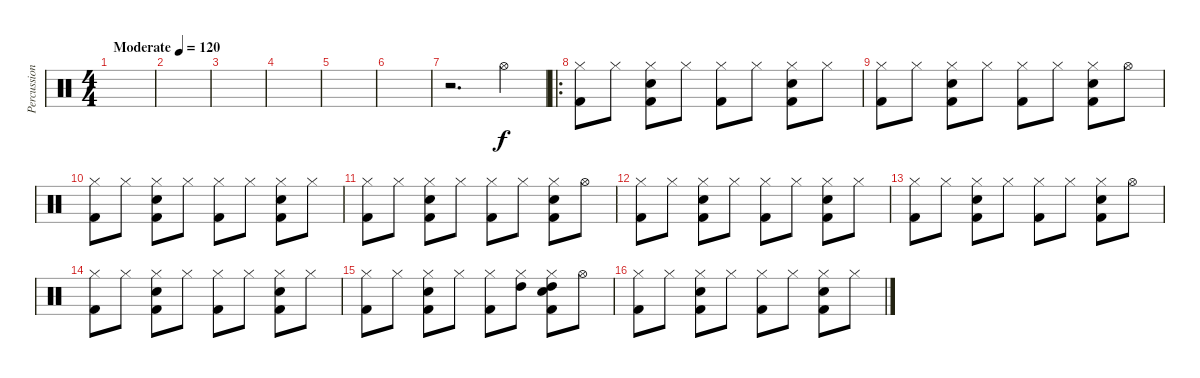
\track ("Percussion" "Percussion") {instrument percussion}
\staff {score}
\articulation defaults
\ts (4 4)
\tempo (120 "Moderate")
\clef neutral
\ks c
|
|
|
|
|
|
r.2{d} "Hi-Hat (open)".4 |
\ro
("Hi-Hat (closed)" "Kick (hit) 2").8 "Hi-Hat (closed)".8 ("Hi-Hat (closed)" "Kick (hit) 2" "Snare (hit) 2").8 "Hi-Hat (closed)".8 ("Hi-Hat (closed)" "Kick (hit) 2").8 "Hi-Hat (closed)".8 ("Hi-Hat (closed)" "Kick (hit) 2" "Snare (hit) 2").8 "Hi-Hat (closed)".8 |
("Hi-Hat (closed)" "Kick (hit) 2").8 "Hi-Hat (closed)".8 ("Hi-Hat (closed)" "Kick (hit) 2" "Snare (hit) 2").8 "Hi-Hat (closed)".8 ("Hi-Hat (closed)" "Kick (hit) 2").8 "Hi-Hat (closed)".8 ("Hi-Hat (closed)" "Kick (hit) 2" "Snare (hit) 2").8 "Hi-Hat (open)".8 |
("Hi-Hat (closed)" "Kick (hit) 2").8 "Hi-Hat (closed)".8 ("Hi-Hat (closed)" "Kick (hit) 2" "Snare (hit) 2").8 "Hi-Hat (closed)".8 ("Hi-Hat (closed)" "Kick (hit) 2").8 "Hi-Hat (closed)".8 ("Hi-Hat (closed)" "Kick (hit) 2" "Snare (hit) 2").8 "Hi-Hat (closed)".8 |
("Hi-Hat (closed)" "Kick (hit) 2").8 "Hi-Hat (closed)".8 ("Hi-Hat (closed)" "Kick (hit) 2" "Snare (hit) 2").8 "Hi-Hat (closed)".8 ("Hi-Hat (closed)" "Kick (hit) 2").8 "Hi-Hat (closed)".8 ("Hi-Hat (closed)" "Kick (hit) 2" "Snare (hit) 2").8 "Hi-Hat (open)".8 |
("Hi-Hat (closed)" "Kick (hit) 2").8 "Hi-Hat (closed)".8 ("Hi-Hat (closed)" "Kick (hit) 2" "Snare (hit) 2").8 "Hi-Hat (closed)".8 ("Hi-Hat (closed)" "Kick (hit) 2").8 "Hi-Hat (closed)".8 ("Hi-Hat (closed)" "Kick (hit) 2" "Snare (hit) 2").8 "Hi-Hat (closed)".8 |
("Hi-Hat (closed)" "Kick (hit) 2").8 "Hi-Hat (closed)".8 ("Hi-Hat (closed)" "Kick (hit) 2" "Snare (hit) 2").8 "Hi-Hat (closed)".8 ("Hi-Hat (closed)" "Kick (hit) 2").8 "Hi-Hat (closed)".8 ("Hi-Hat (closed)" "Kick (hit) 2" "Snare (hit) 2").8 "Hi-Hat (open)".8 |
("Hi-Hat (closed)" "Kick (hit) 2").8 "Hi-Hat (closed)".8 ("Hi-Hat (closed)" "Kick (hit) 2" "Snare (hit) 2").8 "Hi-Hat (closed)".8 ("Hi-Hat (closed)" "Kick (hit) 2").8 "Hi-Hat (closed)".8 ("Hi-Hat (closed)" "Kick (hit) 2" "Snare (hit) 2").8 "Hi-Hat (closed)".8 |
("Hi-Hat (closed)" "Kick (hit) 2").8 "Hi-Hat (closed)".8 ("Hi-Hat (closed)" "Kick (hit) 2" "Snare (hit) 2").8 "Hi-Hat (closed)".8 ("Hi-Hat (closed)" "Kick (hit) 2").8 ("Hi-Hat (closed)" "High Tom (hit)").8 ("Hi-Hat (closed)" "Kick (hit) 2" "Snare (hit) 2" "High Tom (hit)").8 "Hi-Hat (open)".8 |
("Hi-Hat (closed)" "Kick (hit) 2").8 "Hi-Hat (closed)".8 ("Hi-Hat (closed)" "Kick (hit) 2" "Snare (hit) 2").8 "Hi-Hat (closed)".8 ("Hi-Hat (closed)" "Kick (hit) 2").8 "Hi-Hat (closed)".8 ("Hi-Hat (closed)" "Kick (hit) 2" "Snare (hit) 2").8 "Hi-Hat (closed)".8
